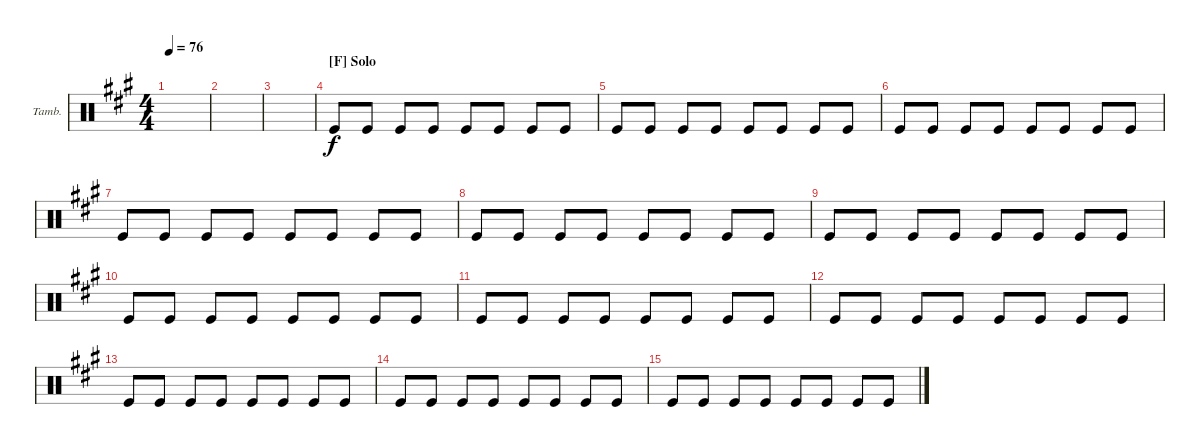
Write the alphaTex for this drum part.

\defaultSystemsLayout 4
\bracketExtendMode groupsimilarinstruments
\firstSystemTrackNameOrientation horizontal
\otherSystemsTrackNameOrientation horizontal
\track ("Tambourine" "Tamb.") {instrument percussion}
\staff {score}
\articulation defaults
\ts (4 4)
\tempo 76
\clef neutral
\scale
0.941992
\ks a
|
\scale
1.09962 |
\scale
0.900378 |
\section ("F" "Solo")
\scale
1.05801 "Kick (hit)".8 "Kick (hit)".8 "Kick (hit)".8 "Kick (hit)".8 "Kick (hit)".8 "Kick (hit)".8 "Kick (hit)".8 "Kick (hit)".8 |
\scale
0.941992 "Kick (hit)".8 "Kick (hit)".8 "Kick (hit)".8 "Kick (hit)".8 "Kick (hit)".8 "Kick (hit)".8 "Kick (hit)".8 "Kick (hit)".8 |
\scale
1.05801 "Kick (hit)".8 "Kick (hit)".8 "Kick (hit)".8 "Kick (hit)".8 "Kick (hit)".8 "Kick (hit)".8 "Kick (hit)".8 "Kick (hit)".8 |
\scale
0.941992 "Kick (hit)".8 "Kick (hit)".8 "Kick (hit)".8 "Kick (hit)".8 "Kick (hit)".8 "Kick (hit)".8 "Kick (hit)".8 "Kick (hit)".8 |
\scale
1.05801 "Kick (hit)".8 "Kick (hit)".8 "Kick (hit)".8 "Kick (hit)".8 "Kick (hit)".8 "Kick (hit)".8 "Kick (hit)".8 "Kick (hit)".8 |
\scale
0.941992 "Kick (hit)".8 "Kick (hit)".8 "Kick (hit)".8 "Kick (hit)".8 "Kick (hit)".8 "Kick (hit)".8 "Kick (hit)".8 "Kick (hit)".8 |
\scale
1.05801 "Kick (hit)".8 "Kick (hit)".8 "Kick (hit)".8 "Kick (hit)".8 "Kick (hit)".8 "Kick (hit)".8 "Kick (hit)".8 "Kick (hit)".8 |
\scale
0.941992 "Kick (hit)".8 "Kick (hit)".8 "Kick (hit)".8 "Kick (hit)".8 "Kick (hit)".8 "Kick (hit)".8 "Kick (hit)".8 "Kick (hit)".8 |
\scale
1.05801 "Kick (hit)".8 "Kick (hit)".8 "Kick (hit)".8 "Kick (hit)".8 "Kick (hit)".8 "Kick (hit)".8 "Kick (hit)".8 "Kick (hit)".8 |
\scale
0.941992 "Kick (hit)".8 "Kick (hit)".8 "Kick (hit)".8 "Kick (hit)".8 "Kick (hit)".8 "Kick (hit)".8 "Kick (hit)".8 "Kick (hit)".8 |
\scale
1.05801 "Kick (hit)".8 "Kick (hit)".8 "Kick (hit)".8 "Kick (hit)".8 "Kick (hit)".8 "Kick (hit)".8 "Kick (hit)".8 "Kick (hit)".8 |
\scale
0.941992 "Kick (hit)".8 "Kick (hit)".8 "Kick (hit)".8 "Kick (hit)".8 "Kick (hit)".8 "Kick (hit)".8 "Kick (hit)".8 "Kick (hit)".8
